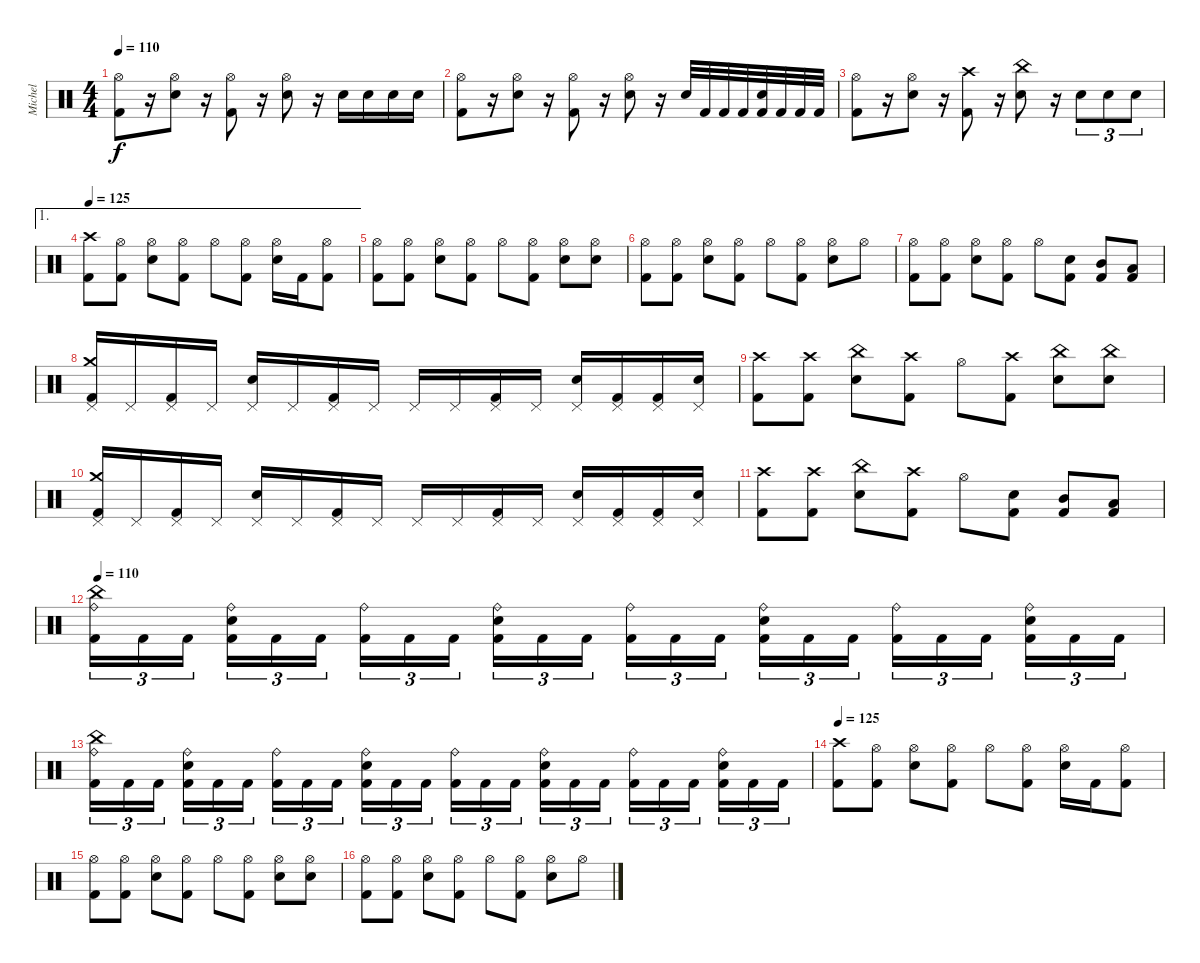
\track ("Michel" "Michel") {instrument percussion}
\staff {score}
\articulation defaults
\ts (4 4)
\tempo 110
\clef neutral
\ks c
("Kick (hit) 2" "Hi-Hat (open)").8{dy f} r.16 ("Snare (hit) 2" "Hi-Hat (open)").8 r.16 ("Kick (hit) 2" "Hi-Hat (open)").8 r.16 ("Snare (hit) 2" "Hi-Hat (open)").8 r.16 "Snare (hit) 2".16 "Snare (hit) 2".16 "Snare (hit) 2".16 "Snare (hit) 2".16 |
("Kick (hit) 2" "Hi-Hat (open)").8 r.16 ("Snare (hit) 2" "Hi-Hat (open)").8 r.16 ("Kick (hit) 2" "Hi-Hat (open)").8 r.16 ("Snare (hit) 2" "Hi-Hat (open)").8 r.16 "Snare (hit) 2".32 "Kick (hit) 2".32 "Kick (hit) 2".32 "Kick (hit) 2".32 ("Snare (hit) 2" "Kick (hit) 2").32 "Kick (hit) 2".32 "Kick (hit) 2".32 "Kick (hit) 2".32 |
("Kick (hit) 2" "Hi-Hat (open)").8 r.16 ("Snare (hit) 2" "Hi-Hat (open)").8 r.16 ("Crash high (hit)" "Kick (hit) 2").8 r.16 ("China (hit)" "Snare (hit) 2").8 r.16 "Snare (hit) 2".8{tu (3 2)} "Snare (hit) 2".8{tu (3 2)} "Snare (hit) 2".8{tu (3 2)} |
\ae 1
\tempo 125
("Crash high (hit)" "Kick (hit) 2").8 ("Kick (hit) 2" "Hi-Hat (open)").8 ("Snare (hit) 2" "Hi-Hat (open)").8 ("Kick (hit) 2" "Hi-Hat (open)").8 "Hi-Hat (open)".8 ("Kick (hit) 2" "Hi-Hat (open)").8 ("Snare (hit) 2" "Hi-Hat (open)").16 "Kick (hit) 2".16 ("Kick (hit) 2" "Hi-Hat (open)").8 |
("Kick (hit) 2" "Hi-Hat (open)").8 ("Kick (hit) 2" "Hi-Hat (open)").8 ("Snare (hit) 2" "Hi-Hat (open)").8 ("Kick (hit) 2" "Hi-Hat (open)").8 "Hi-Hat (open)".8 ("Kick (hit) 2" "Hi-Hat (open)").8 ("Snare (hit) 2" "Hi-Hat (open)").8 ("Snare (hit) 2" "Hi-Hat (open)").8 |
("Kick (hit) 2" "Hi-Hat (open)").8 ("Kick (hit) 2" "Hi-Hat (open)").8 ("Snare (hit) 2" "Hi-Hat (open)").8 ("Kick (hit) 2" "Hi-Hat (open)").8 "Hi-Hat (open)".8 ("Kick (hit) 2" "Hi-Hat (open)").8 ("Snare (hit) 2" "Hi-Hat (open)").8 "Hi-Hat (open)".8 |
("Kick (hit) 2" "Hi-Hat (open)").8 ("Kick (hit) 2" "Hi-Hat (open)").8 ("Snare (hit) 2" "Hi-Hat (open)").8 ("Kick (hit) 2" "Hi-Hat (open)").8 "Hi-Hat (open)".8 ("Snare (hit) 2" "Kick (hit) 2").8 ("Mid Tom (hit)" "Kick (hit) 2").8 ("Low Tom (hit)" "Kick (hit) 2").8 |
("Crash medium (hit)" "Kick (hit) 2" "Pedal Hi-Hat (hit)").16 "Pedal Hi-Hat (hit)".16 ("Kick (hit) 2" "Pedal Hi-Hat (hit)").16 "Pedal Hi-Hat (hit)".16 ("Snare (hit) 2" "Pedal Hi-Hat (hit)").16 "Pedal Hi-Hat (hit)".16 ("Kick (hit) 2" "Pedal Hi-Hat (hit)").16 "Pedal Hi-Hat (hit)".16 "Pedal Hi-Hat (hit)".16 "Pedal Hi-Hat (hit)".16 ("Kick (hit) 2" "Pedal Hi-Hat (hit)").16 "Pedal Hi-Hat (hit)".16 ("Snare (hit) 2" "Pedal Hi-Hat (hit)").16 ("Kick (hit) 2" "Pedal Hi-Hat (hit)").16 ("Kick (hit) 2" "Pedal Hi-Hat (hit)").16 ("Snare (hit) 2" "Pedal Hi-Hat (hit)").16 |
("Crash high (hit)" "Kick (hit) 2").8 ("Crash high (hit)" "Kick (hit) 2").8 ("China (hit)" "Snare (hit) 2").8 ("Crash high (hit)" "Kick (hit) 2").8 "Hi-Hat (open)".8 ("Crash high (hit)" "Kick (hit) 2").8 ("China (hit)" "Snare (hit) 2").8 ("China (hit)" "Snare (hit) 2").8 |
("Crash medium (hit)" "Kick (hit) 2" "Pedal Hi-Hat (hit)").16 "Pedal Hi-Hat (hit)".16 ("Kick (hit) 2" "Pedal Hi-Hat (hit)").16 "Pedal Hi-Hat (hit)".16 ("Snare (hit) 2" "Pedal Hi-Hat (hit)").16 "Pedal Hi-Hat (hit)".16 ("Kick (hit) 2" "Pedal Hi-Hat (hit)").16 "Pedal Hi-Hat (hit)".16 "Pedal Hi-Hat (hit)".16 "Pedal Hi-Hat (hit)".16 ("Kick (hit) 2" "Pedal Hi-Hat (hit)").16 "Pedal Hi-Hat (hit)".16 ("Snare (hit) 2" "Pedal Hi-Hat (hit)").16 ("Kick (hit) 2" "Pedal Hi-Hat (hit)").16 ("Kick (hit) 2" "Pedal Hi-Hat (hit)").16 ("Snare (hit) 2" "Pedal Hi-Hat (hit)").16 |
("Crash high (hit)" "Kick (hit) 2").8 ("Crash high (hit)" "Kick (hit) 2").8 ("China (hit)" "Snare (hit) 2").8 ("Crash high (hit)" "Kick (hit) 2").8 "Hi-Hat (open)".8 ("Snare (hit) 2" "Kick (hit) 2").8 ("Mid Tom (hit)" "Kick (hit) 2").8 ("Low Tom (hit)" "Kick (hit) 2").8 |
\tempo 110
("China (hit)" "Kick (hit) 2" "Ride (bell)").16{tu (3 2)} "Kick (hit) 2".16{tu (3 2)} "Kick (hit) 2".16{tu (3 2)} ("Snare (hit) 2" "Kick (hit) 2" "Ride (bell)").16{tu (3 2)} "Kick (hit) 2".16{tu (3 2)} "Kick (hit) 2".16{tu (3 2)} ("Kick (hit) 2" "Ride (bell)").16{tu (3 2)} "Kick (hit) 2".16{tu (3 2)} "Kick (hit) 2".16{tu (3 2)} ("Snare (hit) 2" "Kick (hit) 2" "Ride (bell)").16{tu (3 2)} "Kick (hit) 2".16{tu (3 2)} "Kick (hit) 2".16{tu (3 2)} ("Kick (hit) 2" "Ride (bell)").16{tu (3 2)} "Kick (hit) 2".16{tu (3 2)} "Kick (hit) 2".16{tu (3 2)} ("Snare (hit) 2" "Kick (hit) 2" "Ride (bell)").16{tu (3 2)} "Kick (hit) 2".16{tu (3 2)} "Kick (hit) 2".16{tu (3 2)} ("Kick (hit) 2" "Ride (bell)").16{tu (3 2)} "Kick (hit) 2".16{tu (3 2)} "Kick (hit) 2".16{tu (3 2)} ("Snare (hit) 2" "Kick (hit) 2" "Ride (bell)").16{tu (3 2)} "Kick (hit) 2".16{tu (3 2)} "Kick (hit) 2".16{tu (3 2)} |
("China (hit)" "Kick (hit) 2" "Ride (bell)").16{tu (3 2)} "Kick (hit) 2".16{tu (3 2)} "Kick (hit) 2".16{tu (3 2)} ("Snare (hit) 2" "Kick (hit) 2" "Ride (bell)").16{tu (3 2)} "Kick (hit) 2".16{tu (3 2)} "Kick (hit) 2".16{tu (3 2)} ("Kick (hit) 2" "Ride (bell)").16{tu (3 2)} "Kick (hit) 2".16{tu (3 2)} "Kick (hit) 2".16{tu (3 2)} ("Snare (hit) 2" "Kick (hit) 2" "Ride (bell)").16{tu (3 2)} "Kick (hit) 2".16{tu (3 2)} "Kick (hit) 2".16{tu (3 2)} ("Kick (hit) 2" "Ride (bell)").16{tu (3 2)} "Kick (hit) 2".16{tu (3 2)} "Kick (hit) 2".16{tu (3 2)} ("Snare (hit) 2" "Kick (hit) 2" "Ride (bell)").16{tu (3 2)} "Kick (hit) 2".16{tu (3 2)} "Kick (hit) 2".16{tu (3 2)} ("Kick (hit) 2" "Ride (bell)").16{tu (3 2)} "Kick (hit) 2".16{tu (3 2)} "Kick (hit) 2".16{tu (3 2)} ("Snare (hit) 2" "Kick (hit) 2" "Ride (bell)").16{tu (3 2)} "Kick (hit) 2".16{tu (3 2)} "Kick (hit) 2".16{tu (3 2)} |
\tempo 125
("Crash high (hit)" "Kick (hit) 2").8 ("Kick (hit) 2" "Hi-Hat (open)").8 ("Snare (hit) 2" "Hi-Hat (open)").8 ("Kick (hit) 2" "Hi-Hat (open)").8 "Hi-Hat (open)".8 ("Kick (hit) 2" "Hi-Hat (open)").8 ("Snare (hit) 2" "Hi-Hat (open)").16 "Kick (hit) 2".16 ("Kick (hit) 2" "Hi-Hat (open)").8 |
("Kick (hit) 2" "Hi-Hat (open)").8 ("Kick (hit) 2" "Hi-Hat (open)").8 ("Snare (hit) 2" "Hi-Hat (open)").8 ("Kick (hit) 2" "Hi-Hat (open)").8 "Hi-Hat (open)".8 ("Kick (hit) 2" "Hi-Hat (open)").8 ("Snare (hit) 2" "Hi-Hat (open)").8 ("Snare (hit) 2" "Hi-Hat (open)").8 |
("Kick (hit) 2" "Hi-Hat (open)").8 ("Kick (hit) 2" "Hi-Hat (open)").8 ("Snare (hit) 2" "Hi-Hat (open)").8 ("Kick (hit) 2" "Hi-Hat (open)").8 "Hi-Hat (open)".8 ("Kick (hit) 2" "Hi-Hat (open)").8 ("Snare (hit) 2" "Hi-Hat (open)").8 "Hi-Hat (open)".8
